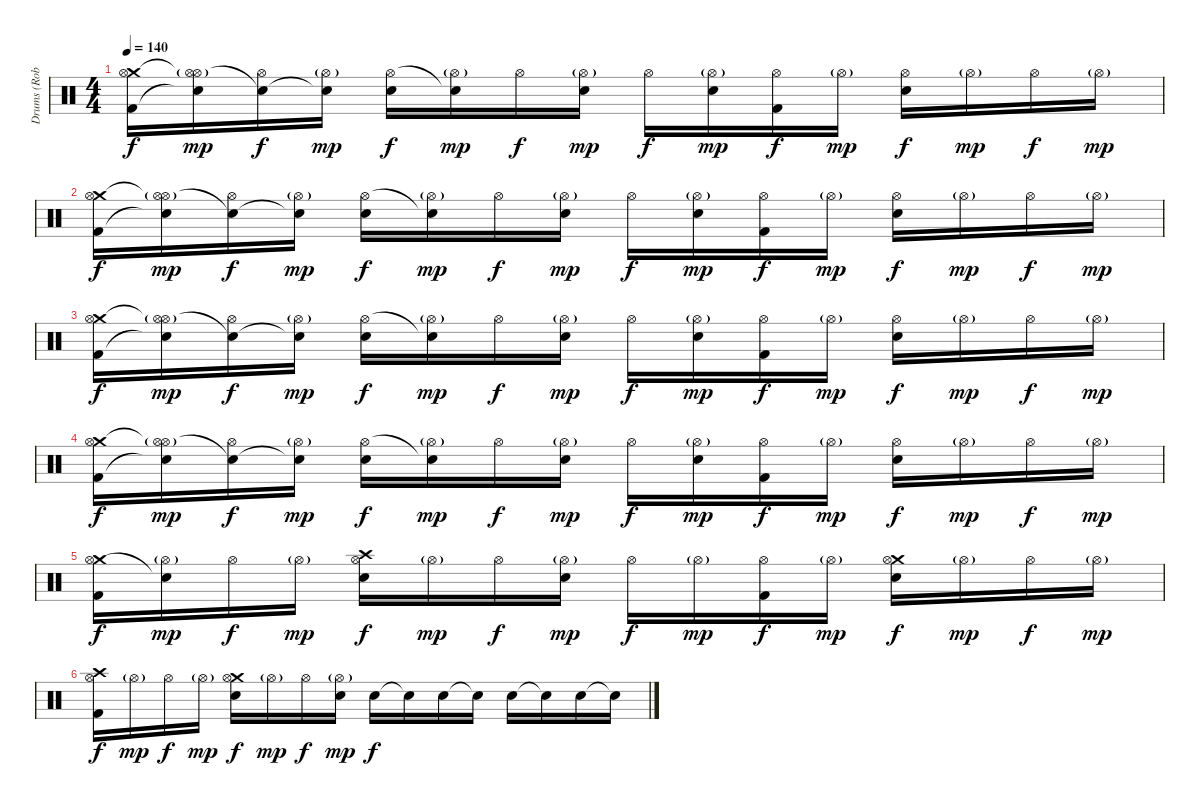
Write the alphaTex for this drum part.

\track ("Drums (Rob Bourdon)" "Drums (Rob") {instrument percussion}
\staff {score}
\articulation defaults
\ts (4 4)
\tempo 140
\clef neutral
\ks c
("Crash medium (hit)" "Hi-Hat (open)" "Kick (hit) 2").16{dy f volume 14} ("Hi-Hat (open)"{t} "Hi-Hat (open)"{g} "Snare (hit)"{t}).16{dy mp} ("Snare (hit)"{t} "Hi-Hat (open)").16{dy f} ("Snare (hit)"{t} "Hi-Hat (open)"{g}).16{dy mp} ("Hi-Hat (open)" "Electric Snare (hit)").16{dy f} ("Snare (hit)"{t} "Hi-Hat (open)"{g}).16{dy mp} "Hi-Hat (open)".16{dy f} ("Hi-Hat (open)"{g} "Electric Snare (hit)").16{dy mp} "Hi-Hat (open)".16{dy f} ("Hi-Hat (open)"{g} "Electric Snare (hit)").16{dy mp} ("Hi-Hat (open)" "Kick (hit) 2").16{dy f} "Hi-Hat (open)"{g}.16{dy mp} ("Hi-Hat (open)" "Electric Snare (hit)").16{dy f} "Hi-Hat (open)"{g}.16{dy mp} "Hi-Hat (open)".16{dy f} "Hi-Hat (open)"{g}.16{dy mp} |
("Crash medium (hit)" "Hi-Hat (open)" "Kick (hit) 2").16{dy f volume 14} ("Hi-Hat (open)"{t} "Hi-Hat (open)"{g} "Snare (hit)"{t}).16{dy mp} ("Snare (hit)"{t} "Hi-Hat (open)").16{dy f} ("Snare (hit)"{t} "Hi-Hat (open)"{g}).16{dy mp} ("Hi-Hat (open)" "Electric Snare (hit)").16{dy f} ("Snare (hit)"{t} "Hi-Hat (open)"{g}).16{dy mp} "Hi-Hat (open)".16{dy f} ("Hi-Hat (open)"{g} "Electric Snare (hit)").16{dy mp} "Hi-Hat (open)".16{dy f} ("Hi-Hat (open)"{g} "Electric Snare (hit)").16{dy mp} ("Hi-Hat (open)" "Kick (hit) 2").16{dy f} "Hi-Hat (open)"{g}.16{dy mp} ("Hi-Hat (open)" "Electric Snare (hit)").16{dy f} "Hi-Hat (open)"{g}.16{dy mp} "Hi-Hat (open)".16{dy f} "Hi-Hat (open)"{g}.16{dy mp} |
("Crash medium (hit)" "Hi-Hat (open)" "Kick (hit) 2").16{dy f volume 14} ("Hi-Hat (open)"{t} "Hi-Hat (open)"{g} "Snare (hit)"{t}).16{dy mp} ("Snare (hit)"{t} "Hi-Hat (open)").16{dy f} ("Snare (hit)"{t} "Hi-Hat (open)"{g}).16{dy mp} ("Hi-Hat (open)" "Electric Snare (hit)").16{dy f} ("Snare (hit)"{t} "Hi-Hat (open)"{g}).16{dy mp} "Hi-Hat (open)".16{dy f} ("Hi-Hat (open)"{g} "Electric Snare (hit)").16{dy mp} "Hi-Hat (open)".16{dy f} ("Hi-Hat (open)"{g} "Electric Snare (hit)").16{dy mp} ("Hi-Hat (open)" "Kick (hit) 2").16{dy f} "Hi-Hat (open)"{g}.16{dy mp} ("Hi-Hat (open)" "Electric Snare (hit)").16{dy f} "Hi-Hat (open)"{g}.16{dy mp} "Hi-Hat (open)".16{dy f} "Hi-Hat (open)"{g}.16{dy mp} |
("Crash medium (hit)" "Hi-Hat (open)" "Kick (hit) 2").16{dy f volume 14} ("Hi-Hat (open)"{t} "Hi-Hat (open)"{g} "Snare (hit)"{t}).16{dy mp} ("Snare (hit)"{t} "Hi-Hat (open)").16{dy f} ("Snare (hit)"{t} "Hi-Hat (open)"{g}).16{dy mp} ("Hi-Hat (open)" "Electric Snare (hit)").16{dy f} ("Snare (hit)"{t} "Hi-Hat (open)"{g}).16{dy mp} "Hi-Hat (open)".16{dy f} ("Hi-Hat (open)"{g} "Electric Snare (hit)").16{dy mp} "Hi-Hat (open)".16{dy f} ("Hi-Hat (open)"{g} "Electric Snare (hit)").16{dy mp} ("Hi-Hat (open)" "Kick (hit) 2").16{dy f} "Hi-Hat (open)"{g}.16{dy mp} ("Hi-Hat (open)" "Electric Snare (hit)").16{dy f} "Hi-Hat (open)"{g}.16{dy mp} "Hi-Hat (open)".16{dy f} "Hi-Hat (open)"{g}.16{dy mp} |
("Crash medium (hit)" "Hi-Hat (open)" "Kick (hit) 2").16{dy f volume 14} ("Hi-Hat (open)"{g} "Snare (hit)"{t}).16{dy mp} "Hi-Hat (open)".16{dy f} "Hi-Hat (open)"{g}.16{dy mp} ("Crash high (hit)" "Hi-Hat (open)" "Electric Snare (hit)").16{dy f} "Hi-Hat (open)"{g}.16{dy mp} "Hi-Hat (open)".16{dy f} ("Hi-Hat (open)"{g} "Electric Snare (hit)").16{dy mp} "Hi-Hat (open)".16{dy f} "Hi-Hat (open)"{g}.16{dy mp} ("Hi-Hat (open)" "Kick (hit) 2").16{dy f} "Hi-Hat (open)"{g}.16{dy mp} ("Crash medium (hit)" "Hi-Hat (open)" "Electric Snare (hit)").16{dy f} "Hi-Hat (open)"{g}.16{dy mp} "Hi-Hat (open)".16{dy f} "Hi-Hat (open)"{g}.16{dy mp} |
("Crash high (hit)" "Hi-Hat (open)" "Kick (hit) 2").16{dy f} "Hi-Hat (open)"{g}.16{dy mp} "Hi-Hat (open)".16{dy f} "Hi-Hat (open)"{g}.16{dy mp} ("Crash medium (hit)" "Hi-Hat (open)" "Electric Snare (hit)").16{dy f} "Hi-Hat (open)"{g}.16{dy mp} "Hi-Hat (open)".16{dy f} ("Hi-Hat (open)"{g} "Electric Snare (hit)").16{dy mp} "Electric Snare (hit)".16{dy f} "Snare (hit)"{t}.16 "Electric Snare (hit)".16 "Snare (hit)"{t}.16 "Electric Snare (hit)".16 "Snare (hit)"{t}.16 "Electric Snare (hit)".16 "Snare (hit)"{t}.16
